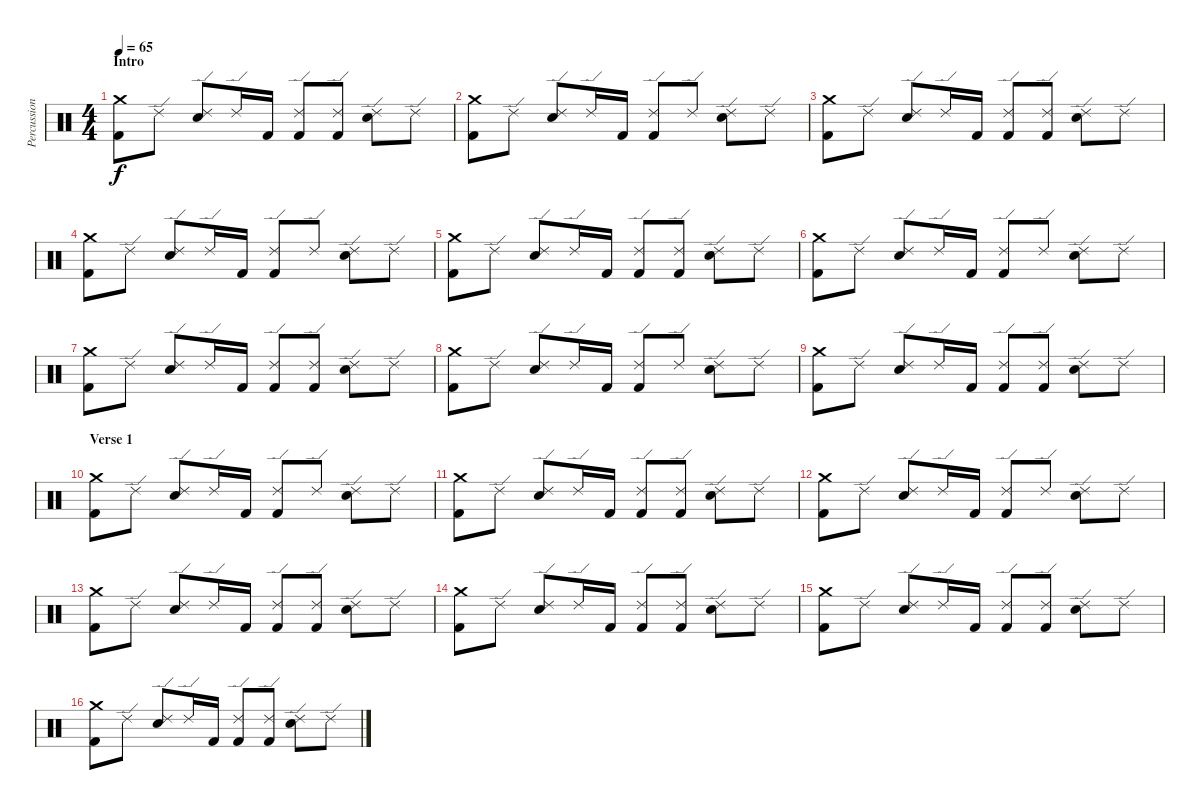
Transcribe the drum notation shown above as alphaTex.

\track ("Percussion" "Percussion") {instrument percussion}
\staff {score}
\articulation defaults
\ts (4 4)
\section ("" "Intro")
\tempo 65
\clef neutral
\ks c
("Crash medium (hit)" "Kick (hit) 2").8{dy f} "Ride (edge) 2".8 ("Ride (edge) 2" "Snare (hit) 2").8 "Ride (edge) 2".16 "Kick (hit) 2".16 ("Ride (edge) 2" "Kick (hit) 2").8 ("Ride (edge) 2" "Kick (hit) 2").8 ("Ride (edge) 2" "Snare (hit) 2").8 "Ride (edge) 2".8 |
("Crash medium (hit)" "Kick (hit) 2").8 "Ride (edge) 2".8 ("Ride (edge) 2" "Snare (hit) 2").8 "Ride (edge) 2".16 "Kick (hit) 2".16 ("Ride (edge) 2" "Kick (hit) 2").8 "Ride (edge) 2".8 ("Ride (edge) 2" "Snare (hit) 2").8 "Ride (edge) 2".8 |
("Crash medium (hit)" "Kick (hit) 2").8 "Ride (edge) 2".8 ("Ride (edge) 2" "Snare (hit) 2").8 "Ride (edge) 2".16 "Kick (hit) 2".16 ("Ride (edge) 2" "Kick (hit) 2").8 ("Ride (edge) 2" "Kick (hit) 2").8 ("Ride (edge) 2" "Snare (hit) 2").8 "Ride (edge) 2".8 |
("Crash medium (hit)" "Kick (hit) 2").8 "Ride (edge) 2".8 ("Ride (edge) 2" "Snare (hit) 2").8 "Ride (edge) 2".16 "Kick (hit) 2".16 ("Ride (edge) 2" "Kick (hit) 2").8 "Ride (edge) 2".8 ("Ride (edge) 2" "Snare (hit) 2").8 "Ride (edge) 2".8 |
("Crash medium (hit)" "Kick (hit) 2").8 "Ride (edge) 2".8 ("Ride (edge) 2" "Snare (hit) 2").8 "Ride (edge) 2".16 "Kick (hit) 2".16 ("Ride (edge) 2" "Kick (hit) 2").8 ("Ride (edge) 2" "Kick (hit) 2").8 ("Ride (edge) 2" "Snare (hit) 2").8 "Ride (edge) 2".8 |
("Crash medium (hit)" "Kick (hit) 2").8 "Ride (edge) 2".8 ("Ride (edge) 2" "Snare (hit) 2").8 "Ride (edge) 2".16 "Kick (hit) 2".16 ("Ride (edge) 2" "Kick (hit) 2").8 "Ride (edge) 2".8 ("Ride (edge) 2" "Snare (hit) 2").8 "Ride (edge) 2".8 |
("Crash medium (hit)" "Kick (hit) 2").8 "Ride (edge) 2".8 ("Ride (edge) 2" "Snare (hit) 2").8 "Ride (edge) 2".16 "Kick (hit) 2".16 ("Ride (edge) 2" "Kick (hit) 2").8 ("Ride (edge) 2" "Kick (hit) 2").8 ("Ride (edge) 2" "Snare (hit) 2").8 "Ride (edge) 2".8 |
("Crash medium (hit)" "Kick (hit) 2").8 "Ride (edge) 2".8 ("Ride (edge) 2" "Snare (hit) 2").8 "Ride (edge) 2".16 "Kick (hit) 2".16 ("Ride (edge) 2" "Kick (hit) 2").8 "Ride (edge) 2".8 ("Ride (edge) 2" "Snare (hit) 2").8 "Ride (edge) 2".8 |
("Crash medium (hit)" "Kick (hit) 2").8 "Ride (edge) 2".8 ("Ride (edge) 2" "Snare (hit) 2").8 "Ride (edge) 2".16 "Kick (hit) 2".16 ("Ride (edge) 2" "Kick (hit) 2").8 ("Ride (edge) 2" "Kick (hit) 2").8 ("Ride (edge) 2" "Snare (hit) 2").8 "Ride (edge) 2".8 |
\section ("" "Verse 1")
("Crash medium (hit)" "Kick (hit) 2").8 "Ride (edge) 2".8 ("Ride (edge) 2" "Snare (hit) 2").8 "Ride (edge) 2".16 "Kick (hit) 2".16 ("Ride (edge) 2" "Kick (hit) 2").8 "Ride (edge) 2".8 ("Ride (edge) 2" "Snare (hit) 2").8 "Ride (edge) 2".8 |
("Crash medium (hit)" "Kick (hit) 2").8 "Ride (edge) 2".8 ("Ride (edge) 2" "Snare (hit) 2").8 "Ride (edge) 2".16 "Kick (hit) 2".16 ("Ride (edge) 2" "Kick (hit) 2").8 ("Ride (edge) 2" "Kick (hit) 2").8 ("Ride (edge) 2" "Snare (hit) 2").8 "Ride (edge) 2".8 |
("Crash medium (hit)" "Kick (hit) 2").8 "Ride (edge) 2".8 ("Ride (edge) 2" "Snare (hit) 2").8 "Ride (edge) 2".16 "Kick (hit) 2".16 ("Ride (edge) 2" "Kick (hit) 2").8 "Ride (edge) 2".8 ("Ride (edge) 2" "Snare (hit) 2").8 "Ride (edge) 2".8 |
("Crash medium (hit)" "Kick (hit) 2").8 "Ride (edge) 2".8 ("Ride (edge) 2" "Snare (hit) 2").8 "Ride (edge) 2".16 "Kick (hit) 2".16 ("Ride (edge) 2" "Kick (hit) 2").8 ("Ride (edge) 2" "Kick (hit) 2").8 ("Ride (edge) 2" "Snare (hit) 2").8 "Ride (edge) 2".8 |
("Crash medium (hit)" "Kick (hit) 2").8 "Ride (edge) 2".8 ("Ride (edge) 2" "Snare (hit) 2").8 "Ride (edge) 2".16 "Kick (hit) 2".16 ("Ride (edge) 2" "Kick (hit) 2").8 ("Ride (edge) 2" "Kick (hit) 2").8 ("Ride (edge) 2" "Snare (hit) 2").8 "Ride (edge) 2".8 |
("Crash medium (hit)" "Kick (hit) 2").8 "Ride (edge) 2".8 ("Ride (edge) 2" "Snare (hit) 2").8 "Ride (edge) 2".16 "Kick (hit) 2".16 ("Ride (edge) 2" "Kick (hit) 2").8 ("Ride (edge) 2" "Kick (hit) 2").8 ("Ride (edge) 2" "Snare (hit) 2").8 "Ride (edge) 2".8 |
("Crash medium (hit)" "Kick (hit) 2").8 "Ride (edge) 2".8 ("Ride (edge) 2" "Snare (hit) 2").8 "Ride (edge) 2".16 "Kick (hit) 2".16 ("Ride (edge) 2" "Kick (hit) 2").8 ("Ride (edge) 2" "Kick (hit) 2").8 ("Ride (edge) 2" "Snare (hit) 2").8 "Ride (edge) 2".8
